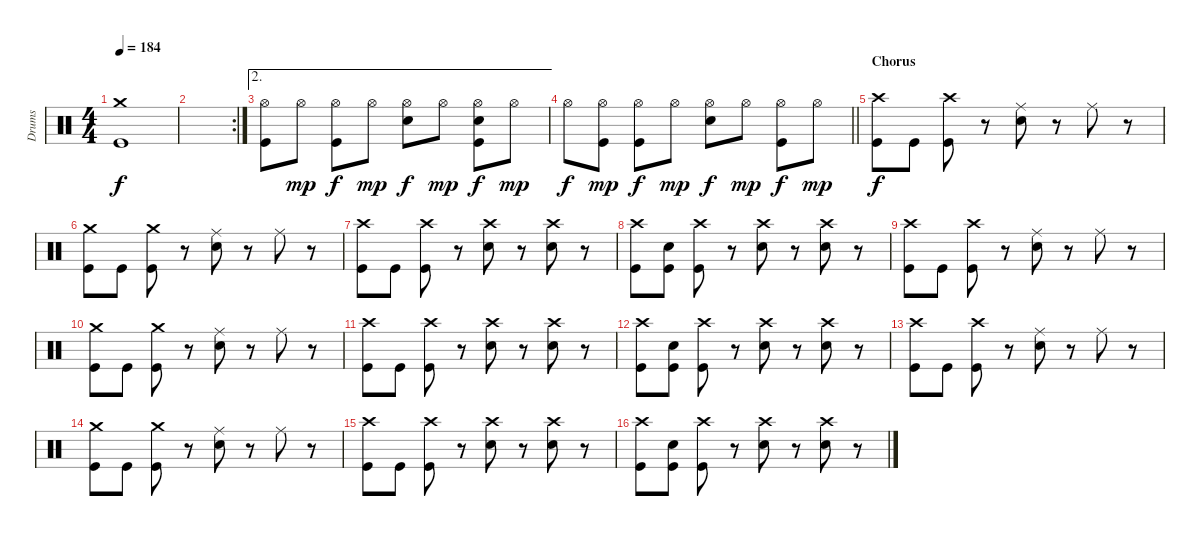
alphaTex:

\track ("Drums" "Drums") {instrument percussion}
\staff {score}
\articulation defaults
\ts (4 4)
\tempo 184
\clef neutral
\ks c
("Crash medium (hit)" "Kick (hit)").1{dy f} |
\rc 2
|
\ae 2
("Hi-Hat (open)" "Kick (hit)").8 "Hi-Hat (open)".8{dy mp} ("Hi-Hat (open)" "Kick (hit)").8{dy f} "Hi-Hat (open)".8{dy mp} ("Hi-Hat (open)" "Electric Snare (hit)").8{dy f} "Hi-Hat (open)".8{dy mp} ("Hi-Hat (open)" "Electric Snare (hit)" "Kick (hit)").8{dy f} "Hi-Hat (open)".8{dy mp} |
\barLineRight lightlight "Hi-Hat (open)".8{dy f}
("Hi-Hat (open)" "Kick (hit)").8{dy mp} ("Hi-Hat (open)" "Kick (hit)").8{dy f} "Hi-Hat (open)".8{dy mp} ("Hi-Hat (open)" "Electric Snare (hit)").8{dy f} "Hi-Hat (open)".8{dy mp} ("Hi-Hat (open)" "Kick (hit)").8{dy f} "Hi-Hat (open)".8{dy mp} |
\section ("" "Chorus")
("Crash high (hit)" "Kick (hit)").8{dy f} "Kick (hit)".8 ("Crash high (hit)" "Kick (hit)").8 r.8 ("Ride (middle)" "Electric Snare (hit)").8 r.8 "Ride (middle)".8 r.8 |
("Crash medium (hit)" "Kick (hit)").8 "Kick (hit)".8 ("Crash medium (hit)" "Kick (hit)").8 r.8 ("Ride (middle)" "Electric Snare (hit)").8 r.8 "Ride (middle)".8 r.8 |
("Crash high (hit)" "Kick (hit)").8 "Kick (hit)".8 ("Crash high (hit)" "Kick (hit)").8 r.8 ("Crash high (hit)" "Electric Snare (hit)").8 r.8 ("Crash high (hit)" "Electric Snare (hit)").8 r.8 |
("Crash high (hit)" "Kick (hit)").8 ("Electric Snare (hit)" "Kick (hit)").8 ("Crash high (hit)" "Kick (hit)").8 r.8 ("Crash high (hit)" "Electric Snare (hit)").8 r.8 ("Crash high (hit)" "Electric Snare (hit)").8 r.8 |
("Crash high (hit)" "Kick (hit)").8 "Kick (hit)".8 ("Crash high (hit)" "Kick (hit)").8 r.8 ("Ride (middle)" "Electric Snare (hit)").8 r.8 "Ride (middle)".8 r.8 |
("Crash medium (hit)" "Kick (hit)").8 "Kick (hit)".8 ("Crash medium (hit)" "Kick (hit)").8 r.8 ("Ride (middle)" "Electric Snare (hit)").8 r.8 "Ride (middle)".8 r.8 |
("Crash high (hit)" "Kick (hit)").8 "Kick (hit)".8 ("Crash high (hit)" "Kick (hit)").8 r.8 ("Crash high (hit)" "Electric Snare (hit)").8 r.8 ("Crash high (hit)" "Electric Snare (hit)").8 r.8 |
("Crash high (hit)" "Kick (hit)").8 ("Electric Snare (hit)" "Kick (hit)").8 ("Crash high (hit)" "Kick (hit)").8 r.8 ("Crash high (hit)" "Electric Snare (hit)").8 r.8 ("Crash high (hit)" "Electric Snare (hit)").8 r.8 |
("Crash high (hit)" "Kick (hit)").8 "Kick (hit)".8 ("Crash high (hit)" "Kick (hit)").8 r.8 ("Ride (middle)" "Electric Snare (hit)").8 r.8 "Ride (middle)".8 r.8 |
("Crash medium (hit)" "Kick (hit)").8 "Kick (hit)".8 ("Crash medium (hit)" "Kick (hit)").8 r.8 ("Ride (middle)" "Electric Snare (hit)").8 r.8 "Ride (middle)".8 r.8 |
("Crash high (hit)" "Kick (hit)").8 "Kick (hit)".8 ("Crash high (hit)" "Kick (hit)").8 r.8 ("Crash high (hit)" "Electric Snare (hit)").8 r.8 ("Crash high (hit)" "Electric Snare (hit)").8 r.8 |
("Crash high (hit)" "Kick (hit)").8 ("Electric Snare (hit)" "Kick (hit)").8 ("Crash high (hit)" "Kick (hit)").8 r.8 ("Crash high (hit)" "Electric Snare (hit)").8 r.8 ("Crash high (hit)" "Electric Snare (hit)").8 r.8
